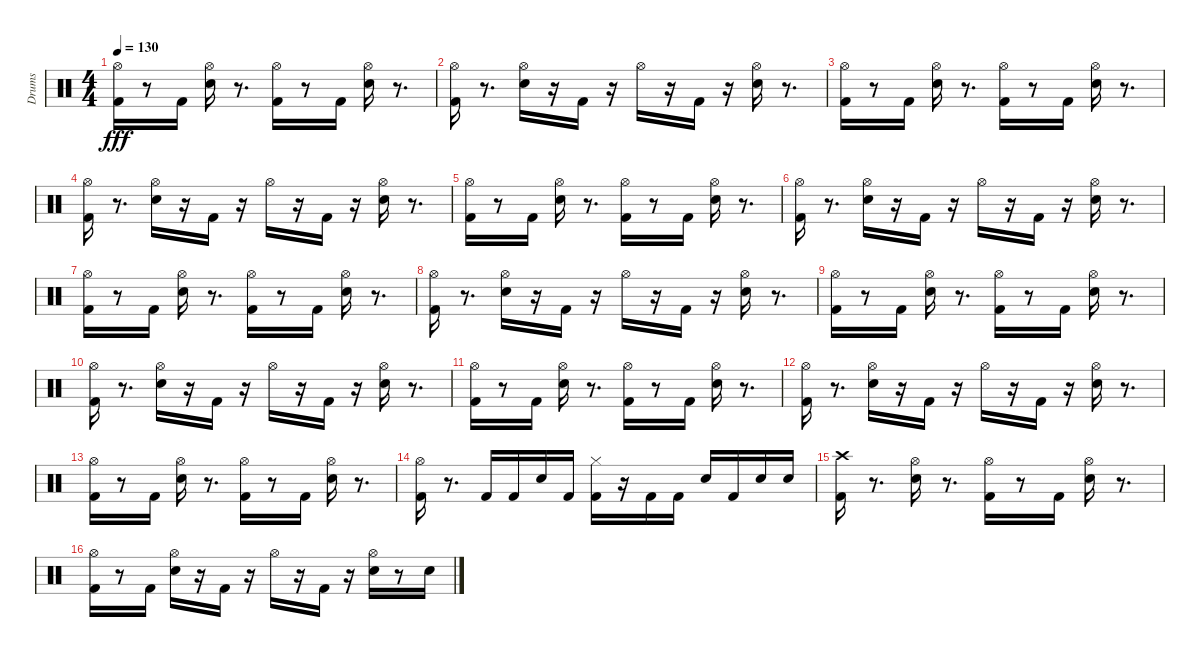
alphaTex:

\track ("Drums" "Drums") {instrument percussion}
\staff {score}
\articulation defaults
\ts (4 4)
\tempo 130
\clef neutral
\ks c
("Hi-Hat (open)" "Kick (hit) 2").16{dy fff} r.8 "Kick (hit) 2".16 ("Hi-Hat (open)" "Snare (hit) 2").16 r.8{d} ("Hi-Hat (open)" "Kick (hit) 2").16 r.8 "Kick (hit) 2".16 ("Hi-Hat (open)" "Snare (hit) 2").16 r.8{d} |
("Hi-Hat (open)" "Kick (hit) 2").16 r.8{d} ("Hi-Hat (open)" "Snare (hit) 2").16 r.16 "Kick (hit) 2".16 r.16 "Hi-Hat (open)".16 r.16 "Kick (hit) 2".16 r.16 ("Hi-Hat (open)" "Snare (hit) 2").16 r.8{d} |
("Hi-Hat (open)" "Kick (hit) 2").16 r.8 "Kick (hit) 2".16 ("Hi-Hat (open)" "Snare (hit) 2").16 r.8{d} ("Hi-Hat (open)" "Kick (hit) 2").16 r.8 "Kick (hit) 2".16 ("Hi-Hat (open)" "Snare (hit) 2").16 r.8{d} |
("Hi-Hat (open)" "Kick (hit) 2").16 r.8{d} ("Hi-Hat (open)" "Snare (hit) 2").16 r.16 "Kick (hit) 2".16 r.16 "Hi-Hat (open)".16 r.16 "Kick (hit) 2".16 r.16 ("Hi-Hat (open)" "Snare (hit) 2").16 r.8{d} |
("Hi-Hat (open)" "Kick (hit) 2").16 r.8 "Kick (hit) 2".16 ("Hi-Hat (open)" "Snare (hit) 2").16 r.8{d} ("Hi-Hat (open)" "Kick (hit) 2").16 r.8 "Kick (hit) 2".16 ("Hi-Hat (open)" "Snare (hit) 2").16 r.8{d} |
("Hi-Hat (open)" "Kick (hit) 2").16 r.8{d} ("Hi-Hat (open)" "Snare (hit) 2").16 r.16 "Kick (hit) 2".16 r.16 "Hi-Hat (open)".16 r.16 "Kick (hit) 2".16 r.16 ("Hi-Hat (open)" "Snare (hit) 2").16 r.8{d} |
("Hi-Hat (open)" "Kick (hit) 2").16 r.8 "Kick (hit) 2".16 ("Hi-Hat (open)" "Snare (hit) 2").16 r.8{d} ("Hi-Hat (open)" "Kick (hit) 2").16 r.8 "Kick (hit) 2".16 ("Hi-Hat (open)" "Snare (hit) 2").16 r.8{d} |
("Hi-Hat (open)" "Kick (hit) 2").16 r.8{d} ("Hi-Hat (open)" "Snare (hit) 2").16 r.16 "Kick (hit) 2".16 r.16 "Hi-Hat (open)".16 r.16 "Kick (hit) 2".16 r.16 ("Hi-Hat (open)" "Snare (hit) 2").16 r.8{d} |
("Hi-Hat (open)" "Kick (hit) 2").16 r.8 "Kick (hit) 2".16 ("Hi-Hat (open)" "Snare (hit) 2").16 r.8{d} ("Hi-Hat (open)" "Kick (hit) 2").16 r.8 "Kick (hit) 2".16 ("Hi-Hat (open)" "Snare (hit) 2").16 r.8{d} |
("Hi-Hat (open)" "Kick (hit) 2").16 r.8{d} ("Hi-Hat (open)" "Snare (hit) 2").16 r.16 "Kick (hit) 2".16 r.16 "Hi-Hat (open)".16 r.16 "Kick (hit) 2".16 r.16 ("Hi-Hat (open)" "Snare (hit) 2").16 r.8{d} |
("Hi-Hat (open)" "Kick (hit) 2").16 r.8 "Kick (hit) 2".16 ("Hi-Hat (open)" "Snare (hit) 2").16 r.8{d} ("Hi-Hat (open)" "Kick (hit) 2").16 r.8 "Kick (hit) 2".16 ("Hi-Hat (open)" "Snare (hit) 2").16 r.8{d} |
("Hi-Hat (open)" "Kick (hit) 2").16 r.8{d} ("Hi-Hat (open)" "Snare (hit) 2").16 r.16 "Kick (hit) 2".16 r.16 "Hi-Hat (open)".16 r.16 "Kick (hit) 2".16 r.16 ("Hi-Hat (open)" "Snare (hit) 2").16 r.8{d} |
("Hi-Hat (open)" "Kick (hit) 2").16 r.8 "Kick (hit) 2".16 ("Hi-Hat (open)" "Snare (hit) 2").16 r.8{d} ("Hi-Hat (open)" "Kick (hit) 2").16 r.8 "Kick (hit) 2".16 ("Hi-Hat (open)" "Snare (hit) 2").16 r.8{d} |
("Hi-Hat (open)" "Kick (hit) 2").16 r.8{d} "Kick (hit) 2".16 "Kick (hit) 2".16 "Snare (hit) 2".16 "Kick (hit) 2".16 ("Hi-Hat (closed)" "Kick (hit) 2").16 r.16 "Kick (hit) 2".16 "Kick (hit) 2".16 "Snare (hit) 2".16 "Kick (hit) 2".16 "Snare (hit) 2".16 "Snare (hit) 2".16 |
("Crash high (hit)" "Kick (hit) 2").16 r.8{d} ("Hi-Hat (open)" "Snare (hit) 2").16 r.8{d} ("Hi-Hat (open)" "Kick (hit) 2").16 r.8 "Kick (hit) 2".16 ("Hi-Hat (open)" "Snare (hit) 2").16 r.8{d} |
("Hi-Hat (open)" "Kick (hit) 2").16 r.8 "Kick (hit) 2".16 ("Hi-Hat (open)" "Snare (hit) 2").16 r.16 "Kick (hit) 2".16 r.16 "Hi-Hat (open)".16 r.16 "Kick (hit) 2".16 r.16 ("Hi-Hat (open)" "Snare (hit) 2").16 r.8 "Snare (hit) 2".16
